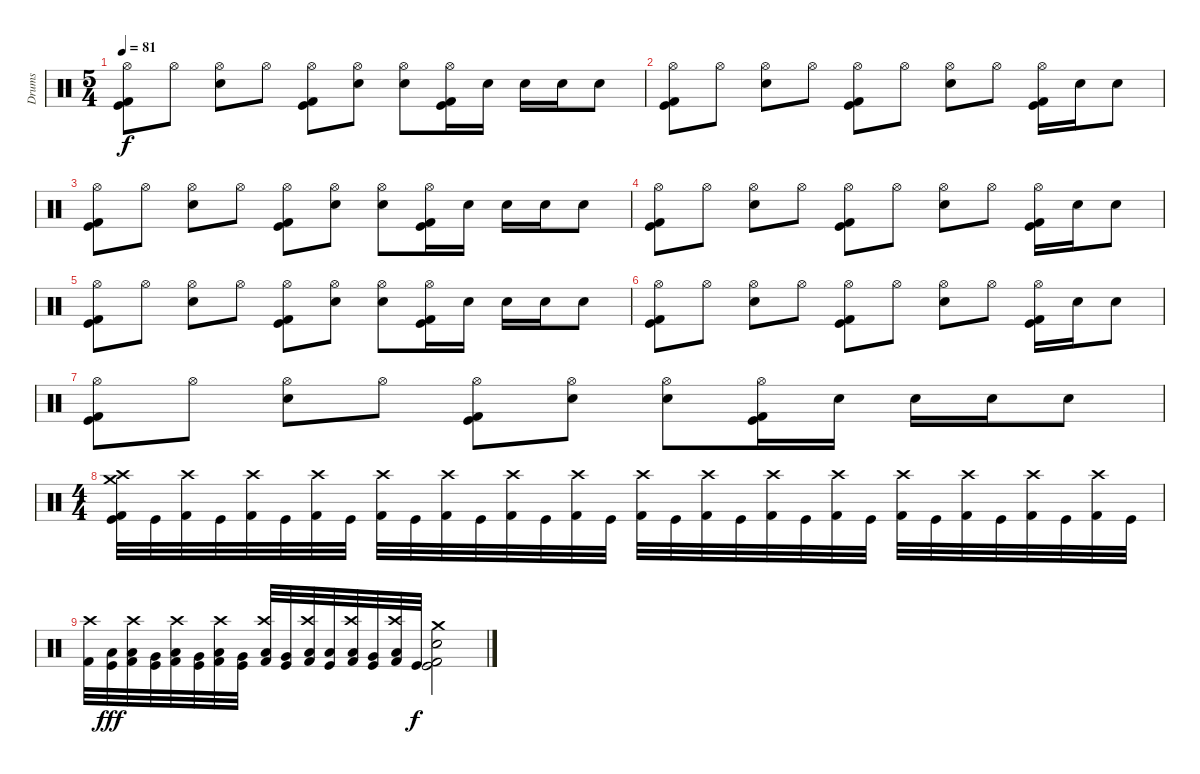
\track ("Drums" "Drums") {instrument percussion}
\staff {score}
\articulation defaults
\ts (5 4)
\tempo 81
\clef neutral
\ks c
("Hi-Hat (open)" "Kick (hit)" "Kick (hit) 2").8{dy f} "Hi-Hat (open)".8 ("Hi-Hat (open)" "Electric Snare (hit)").8 "Hi-Hat (open)".8 ("Hi-Hat (open)" "Kick (hit)" "Kick (hit) 2").8 ("Hi-Hat (open)" "Electric Snare (hit)").8 ("Hi-Hat (open)" "Electric Snare (hit)").8 ("Hi-Hat (open)" "Kick (hit)" "Kick (hit) 2").16 "Electric Snare (hit)".16 "Electric Snare (hit)".16 "Electric Snare (hit)".16 "Electric Snare (hit)".8 |
("Hi-Hat (open)" "Kick (hit)" "Kick (hit) 2").8 "Hi-Hat (open)".8 ("Hi-Hat (open)" "Electric Snare (hit)").8 "Hi-Hat (open)".8 ("Hi-Hat (open)" "Kick (hit)" "Kick (hit) 2").8 "Hi-Hat (open)".8 ("Hi-Hat (open)" "Electric Snare (hit)").8 "Hi-Hat (open)".8 ("Hi-Hat (open)" "Kick (hit)" "Kick (hit) 2").16 "Electric Snare (hit)".16 "Electric Snare (hit)".8 |
("Hi-Hat (open)" "Kick (hit)" "Kick (hit) 2").8 "Hi-Hat (open)".8 ("Hi-Hat (open)" "Electric Snare (hit)").8 "Hi-Hat (open)".8 ("Hi-Hat (open)" "Kick (hit)" "Kick (hit) 2").8 ("Hi-Hat (open)" "Electric Snare (hit)").8 ("Hi-Hat (open)" "Electric Snare (hit)").8 ("Hi-Hat (open)" "Kick (hit)" "Kick (hit) 2").16 "Electric Snare (hit)".16 "Electric Snare (hit)".16 "Electric Snare (hit)".16 "Electric Snare (hit)".8 |
("Hi-Hat (open)" "Kick (hit)" "Kick (hit) 2").8 "Hi-Hat (open)".8 ("Hi-Hat (open)" "Electric Snare (hit)").8 "Hi-Hat (open)".8 ("Hi-Hat (open)" "Kick (hit)" "Kick (hit) 2").8 "Hi-Hat (open)".8 ("Hi-Hat (open)" "Electric Snare (hit)").8 "Hi-Hat (open)".8 ("Hi-Hat (open)" "Kick (hit)" "Kick (hit) 2").16 "Electric Snare (hit)".16 "Electric Snare (hit)".8 |
("Hi-Hat (open)" "Kick (hit)" "Kick (hit) 2").8 "Hi-Hat (open)".8 ("Hi-Hat (open)" "Electric Snare (hit)").8 "Hi-Hat (open)".8 ("Hi-Hat (open)" "Kick (hit)" "Kick (hit) 2").8 ("Hi-Hat (open)" "Electric Snare (hit)").8 ("Hi-Hat (open)" "Electric Snare (hit)").8 ("Hi-Hat (open)" "Kick (hit)" "Kick (hit) 2").16 "Electric Snare (hit)".16 "Electric Snare (hit)".16 "Electric Snare (hit)".16 "Electric Snare (hit)".8 |
("Hi-Hat (open)" "Kick (hit)" "Kick (hit) 2").8 "Hi-Hat (open)".8 ("Hi-Hat (open)" "Electric Snare (hit)").8 "Hi-Hat (open)".8 ("Hi-Hat (open)" "Kick (hit)" "Kick (hit) 2").8 "Hi-Hat (open)".8 ("Hi-Hat (open)" "Electric Snare (hit)").8 "Hi-Hat (open)".8 ("Hi-Hat (open)" "Kick (hit)" "Kick (hit) 2").16 "Electric Snare (hit)".16 "Electric Snare (hit)".8 |
("Hi-Hat (open)" "Kick (hit)" "Kick (hit) 2").8 "Hi-Hat (open)".8 ("Hi-Hat (open)" "Electric Snare (hit)").8 "Hi-Hat (open)".8 ("Hi-Hat (open)" "Kick (hit)" "Kick (hit) 2").8 ("Hi-Hat (open)" "Electric Snare (hit)").8 ("Hi-Hat (open)" "Electric Snare (hit)").8 ("Hi-Hat (open)" "Kick (hit)" "Kick (hit) 2").16 "Electric Snare (hit)".16 "Electric Snare (hit)".16 "Electric Snare (hit)".16 "Electric Snare (hit)".8 |
\ts (4 4)
("Crash high (hit)" "Crash medium (hit)" "Kick (hit)" "Kick (hit) 2").32 "Kick (hit)".32 ("Crash high (hit)" "Kick (hit) 2").32 "Kick (hit)".32 ("Crash high (hit)" "Kick (hit) 2").32 "Kick (hit)".32 ("Crash high (hit)" "Kick (hit) 2").32 "Kick (hit)".32 ("Crash high (hit)" "Kick (hit) 2").32 "Kick (hit)".32 ("Crash high (hit)" "Kick (hit) 2").32 "Kick (hit)".32 ("Crash high (hit)" "Kick (hit) 2").32 "Kick (hit)".32 ("Crash high (hit)" "Kick (hit) 2").32 "Kick (hit)".32 ("Crash high (hit)" "Kick (hit) 2").32 "Kick (hit)".32 ("Crash high (hit)" "Kick (hit) 2").32 "Kick (hit)".32 ("Crash high (hit)" "Kick (hit) 2").32 "Kick (hit)".32 ("Crash high (hit)" "Kick (hit) 2").32 "Kick (hit)".32 ("Crash high (hit)" "Kick (hit) 2").32 "Kick (hit)".32 ("Crash high (hit)" "Kick (hit) 2").32 "Kick (hit)".32 ("Crash high (hit)" "Kick (hit) 2").32 "Kick (hit)".32 ("Crash high (hit)" "Kick (hit) 2").32 "Kick (hit)".32 |
("Crash high (hit)" "Kick (hit) 2").32 ("Low Tom (hit)" "Kick (hit)").32{dy fff} ("Crash high (hit)" "Low Floor Tom (hit)" "Kick (hit) 2").32 ("Very Low Tom (hit)" "Kick (hit)").32 ("Crash high (hit)" "Low Tom (hit)" "Kick (hit) 2").32 ("Very Low Tom (hit)" "Kick (hit)").32 ("Crash high (hit)" "Low Tom (hit)" "Kick (hit) 2").32 ("Very Low Tom (hit)" "Kick (hit)").32 ("Crash high (hit)" "Low Floor Tom (hit)" "Kick (hit) 2").32 ("Very Low Tom (hit)" "Kick (hit)").32 ("Crash high (hit)" "Low Floor Tom (hit)" "Kick (hit) 2").32 ("Low Tom (hit)" "Kick (hit)").32 ("Crash high (hit)" "Low Floor Tom (hit)" "Kick (hit) 2").32 ("Very Low Tom (hit)" "Kick (hit)").32 ("Crash high (hit)" "Low Floor Tom (hit)" "Kick (hit) 2").32 "Kick (hit)".32{dy f} ("Crash medium (hit)" "Electric Snare (hit)" "Kick (hit)" "Kick (hit) 2").2
